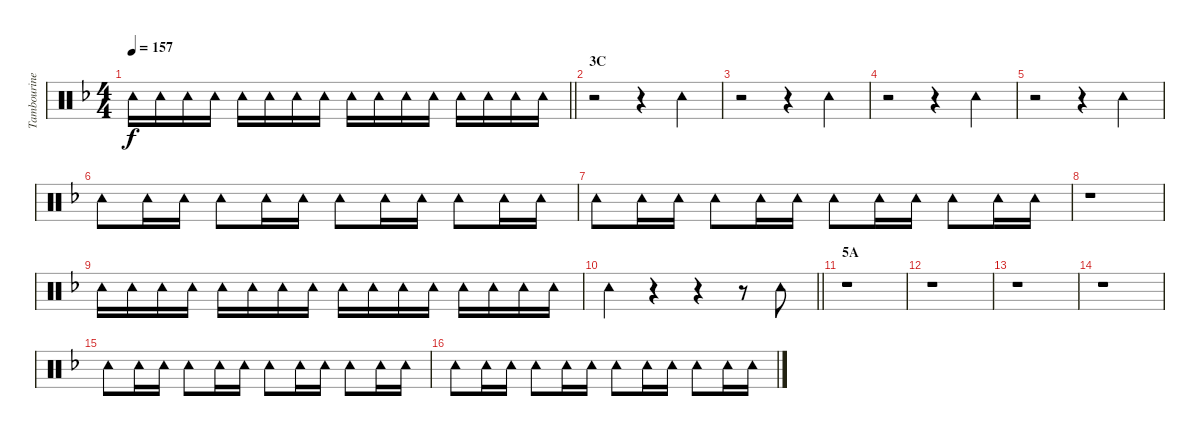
\track ("Tambourine" "Tambourine") {instrument percussion}
\staff {score}
\articulation defaults
\ts (4 4)
\tempo 157
\clef neutral
\barLineRight lightlight
\ks f "Tambourine (hit)".16{dy f} "Tambourine (hit)".16 "Tambourine (hit)".16 "Tambourine (hit)".16 "Tambourine (hit)".16 "Tambourine (hit)".16 "Tambourine (hit)".16 "Tambourine (hit)".16 "Tambourine (hit)".16 "Tambourine (hit)".16 "Tambourine (hit)".16 "Tambourine (hit)".16 "Tambourine (hit)".16 "Tambourine (hit)".16 "Tambourine (hit)".16 "Tambourine (hit)".16
|
\section ("" "3C")
r.2 r.4 "Tambourine (hit)".4 |
r.2 r.4 "Tambourine (hit)".4 |
r.2 r.4 "Tambourine (hit)".4 |
r.2 r.4 "Tambourine (hit)".4 |
"Tambourine (hit)".8 "Tambourine (hit)".16 "Tambourine (hit)".16 "Tambourine (hit)".8 "Tambourine (hit)".16 "Tambourine (hit)".16 "Tambourine (hit)".8 "Tambourine (hit)".16 "Tambourine (hit)".16 "Tambourine (hit)".8 "Tambourine (hit)".16 "Tambourine (hit)".16 |
"Tambourine (hit)".8 "Tambourine (hit)".16 "Tambourine (hit)".16 "Tambourine (hit)".8 "Tambourine (hit)".16 "Tambourine (hit)".16 "Tambourine (hit)".8 "Tambourine (hit)".16 "Tambourine (hit)".16 "Tambourine (hit)".8 "Tambourine (hit)".16 "Tambourine (hit)".16 |
r.1 |
"Tambourine (hit)".16 "Tambourine (hit)".16 "Tambourine (hit)".16 "Tambourine (hit)".16 "Tambourine (hit)".16 "Tambourine (hit)".16 "Tambourine (hit)".16 "Tambourine (hit)".16 "Tambourine (hit)".16 "Tambourine (hit)".16 "Tambourine (hit)".16 "Tambourine (hit)".16 "Tambourine (hit)".16 "Tambourine (hit)".16 "Tambourine (hit)".16 "Tambourine (hit)".16 |
\barLineRight lightlight "Tambourine (hit)".4
r.4 r.4 r.8 "Tambourine (hit)".8 |
\section ("" "5A")
r.1 |
r.1 |
r.1 |
r.1 |
"Tambourine (hit)".8 "Tambourine (hit)".16 "Tambourine (hit)".16 "Tambourine (hit)".8 "Tambourine (hit)".16 "Tambourine (hit)".16 "Tambourine (hit)".8 "Tambourine (hit)".16 "Tambourine (hit)".16 "Tambourine (hit)".8 "Tambourine (hit)".16 "Tambourine (hit)".16 |
"Tambourine (hit)".8 "Tambourine (hit)".16 "Tambourine (hit)".16 "Tambourine (hit)".8 "Tambourine (hit)".16 "Tambourine (hit)".16 "Tambourine (hit)".8 "Tambourine (hit)".16 "Tambourine (hit)".16 "Tambourine (hit)".8 "Tambourine (hit)".16 "Tambourine (hit)".16
